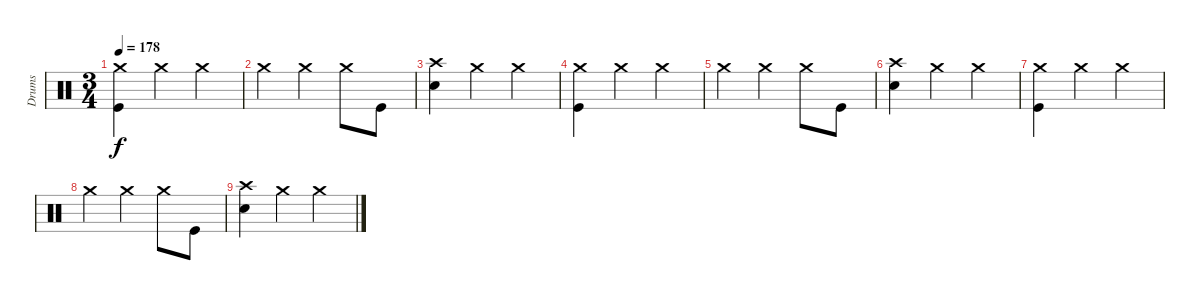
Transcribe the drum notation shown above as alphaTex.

\track ("Drums" "Drums") {instrument percussion}
\staff {score}
\articulation defaults
\ts (3 4)
\tempo 178
\clef neutral
\ks c
("Kick (hit)" "Crash medium (hit)").4{dy f} "Crash medium (hit)".4 "Crash medium (hit)".4 |
"Crash medium (hit)".4 "Crash medium (hit)".4 "Crash medium (hit)".8 "Kick (hit)".8 |
("Snare (hit) 2" "Crash high (hit)").4 "Crash medium (hit)".4 "Crash medium (hit)".4 |
("Kick (hit)" "Crash medium (hit)").4 "Crash medium (hit)".4 "Crash medium (hit)".4 |
"Crash medium (hit)".4 "Crash medium (hit)".4 "Crash medium (hit)".8 "Kick (hit)".8 |
("Snare (hit) 2" "Crash high (hit)").4 "Crash medium (hit)".4 "Crash medium (hit)".4 |
("Kick (hit)" "Crash medium (hit)").4 "Crash medium (hit)".4 "Crash medium (hit)".4 |
"Crash medium (hit)".4 "Crash medium (hit)".4 "Crash medium (hit)".8 "Kick (hit)".8 |
("Snare (hit) 2" "Crash high (hit)").4 "Crash medium (hit)".4 "Crash medium (hit)".4
